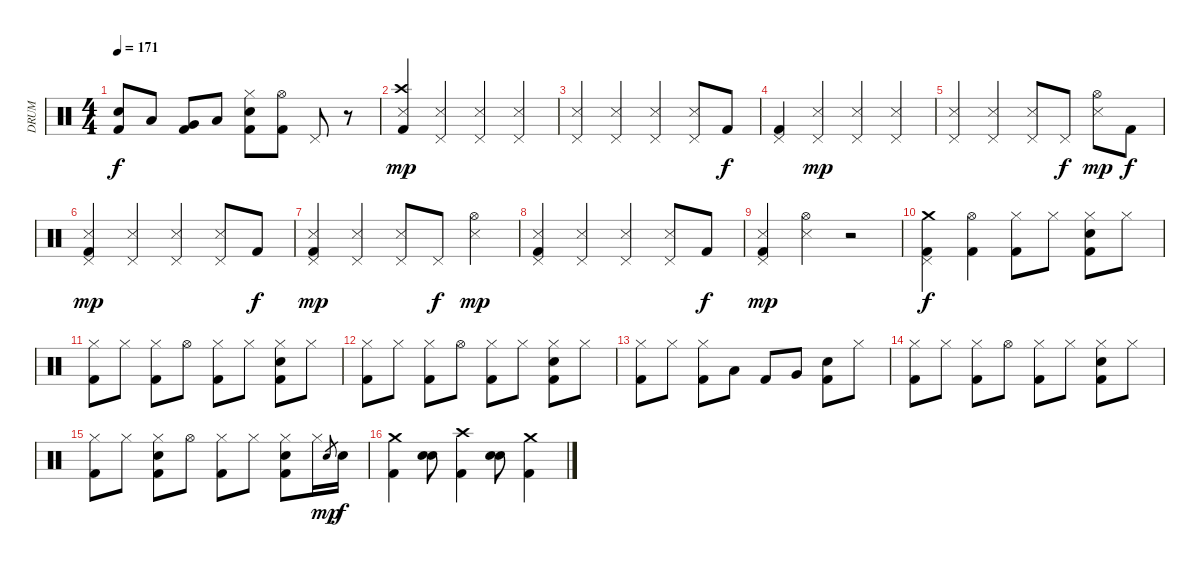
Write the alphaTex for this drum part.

\track ("DRUM" "DRUM") {instrument percussion}
\staff {score}
\articulation defaults
\ts (4 4)
\tempo 171
\clef neutral
\ks c
("Electric Snare (hit)" "Kick (hit) 2").8{dy f} "Low Tom (hit)".8 ("Very Low Tom (hit)" "Kick (hit) 2").8 "Low Floor Tom (hit)".8 ("Hi-Hat (closed)" "Electric Snare (hit)" "Kick (hit) 2").8 ("Hi-Hat (open)" "Kick (hit) 2").8 "Pedal Hi-Hat (hit)".8 r.8 |
("Crash high (hit)" "Snare (side stick) 3" "Kick (hit) 2").4{dy mp} ("Pedal Hi-Hat (hit)" "Snare (side stick) 3").4 ("Pedal Hi-Hat (hit)" "Snare (side stick) 3").4 ("Pedal Hi-Hat (hit)" "Snare (side stick) 3").4 |
("Pedal Hi-Hat (hit)" "Snare (side stick) 3").4 ("Pedal Hi-Hat (hit)" "Snare (side stick) 3").4 ("Pedal Hi-Hat (hit)" "Snare (side stick) 3").4 ("Pedal Hi-Hat (hit)" "Snare (side stick) 3").8 "Kick (hit) 2".8{dy f} |
("Pedal Hi-Hat (hit)" "Kick (hit) 2").4 ("Pedal Hi-Hat (hit)" "Snare (side stick) 3").4{dy mp} ("Pedal Hi-Hat (hit)" "Snare (side stick) 3").4 ("Pedal Hi-Hat (hit)" "Snare (side stick) 3").4 |
("Pedal Hi-Hat (hit)" "Snare (side stick) 3").4 ("Pedal Hi-Hat (hit)" "Snare (side stick) 3").4 ("Pedal Hi-Hat (hit)" "Snare (side stick) 3").8 "Pedal Hi-Hat (hit)".8{dy f} ("Hi-Hat (open)" "Snare (side stick) 3").8{dy mp} "Kick (hit) 2".8{dy f} |
("Pedal Hi-Hat (hit)" "Snare (side stick) 3" "Kick (hit) 2").4{dy mp} ("Pedal Hi-Hat (hit)" "Snare (side stick) 3").4 ("Pedal Hi-Hat (hit)" "Snare (side stick) 3").4 ("Pedal Hi-Hat (hit)" "Snare (side stick) 3").8 "Kick (hit) 2".8{dy f} |
("Pedal Hi-Hat (hit)" "Snare (side stick) 3" "Kick (hit) 2").4{dy mp} ("Pedal Hi-Hat (hit)" "Snare (side stick) 3").4 ("Pedal Hi-Hat (hit)" "Snare (side stick) 3").8 "Pedal Hi-Hat (hit)".8{dy f} ("Hi-Hat (open)" "Snare (side stick) 3").4{dy mp} |
("Pedal Hi-Hat (hit)" "Snare (side stick) 3" "Kick (hit) 2").4 ("Pedal Hi-Hat (hit)" "Snare (side stick) 3").4 ("Pedal Hi-Hat (hit)" "Snare (side stick) 3").4 ("Pedal Hi-Hat (hit)" "Snare (side stick) 3").8 "Kick (hit) 2".8{dy f} |
("Pedal Hi-Hat (hit)" "Snare (side stick) 3" "Kick (hit) 2").4{dy mp} ("Hi-Hat (open)" "Snare (side stick) 3").4 r.2 |
("Crash medium (hit)" "Pedal Hi-Hat (hit)" "Kick (hit) 2").4{dy f} ("Hi-Hat (open)" "Kick (hit) 2").4 ("Hi-Hat (closed)" "Kick (hit) 2").8 "Hi-Hat (closed)".8 ("Hi-Hat (closed)" "Electric Snare (hit)" "Kick (hit) 2").8 "Hi-Hat (closed)".8 |
("Hi-Hat (closed)" "Kick (hit) 2").8 "Hi-Hat (closed)".8 ("Hi-Hat (closed)" "Kick (hit) 2").8 "Hi-Hat (open)".8 ("Hi-Hat (closed)" "Kick (hit) 2").8 "Hi-Hat (closed)".8 ("Hi-Hat (closed)" "Electric Snare (hit)" "Kick (hit) 2").8 "Hi-Hat (closed)".8 |
("Hi-Hat (closed)" "Kick (hit) 2").8 "Hi-Hat (closed)".8 ("Hi-Hat (closed)" "Kick (hit) 2").8 "Hi-Hat (open)".8 ("Hi-Hat (closed)" "Kick (hit) 2").8 "Hi-Hat (closed)".8 ("Hi-Hat (closed)" "Electric Snare (hit)" "Kick (hit) 2").8 "Hi-Hat (closed)".8 |
("Hi-Hat (closed)" "Kick (hit) 2").8 "Hi-Hat (closed)".8 ("Hi-Hat (closed)" "Kick (hit) 2").8 "Low Tom (hit)".8 "Kick (hit) 2".8 "Very Low Tom (hit)".8 ("Electric Snare (hit)" "Kick (hit) 2").8 "Hi-Hat (closed)".8 |
("Hi-Hat (closed)" "Kick (hit) 2").8 "Hi-Hat (closed)".8 ("Hi-Hat (closed)" "Kick (hit) 2").8 "Hi-Hat (open)".8 ("Hi-Hat (closed)" "Kick (hit) 2").8 "Hi-Hat (closed)".8 ("Hi-Hat (closed)" "Electric Snare (hit)" "Kick (hit) 2").8 "Hi-Hat (closed)".8 |
("Hi-Hat (closed)" "Kick (hit) 2").8 "Hi-Hat (closed)".8 ("Hi-Hat (closed)" "Electric Snare (hit)" "Kick (hit) 2").8 "Hi-Hat (open)".8 ("Hi-Hat (closed)" "Kick (hit) 2").8 "Hi-Hat (closed)".8 ("Hi-Hat (closed)" "Electric Snare (hit)" "Kick (hit) 2").8 "Hi-Hat (closed)".16 "Electric Snare (hit)".8{gr dy mp} "Electric Snare (hit)".16{dy f} |
("Crash medium (hit)" "Kick (hit) 2").4 ("Electric Snare (hit)" "Electric Snare (hit)").8 ("Crash high (hit)" "Kick (hit) 2").4 ("Electric Snare (hit)" "Electric Snare (hit)").8 ("Crash medium (hit)" "Kick (hit) 2").4
